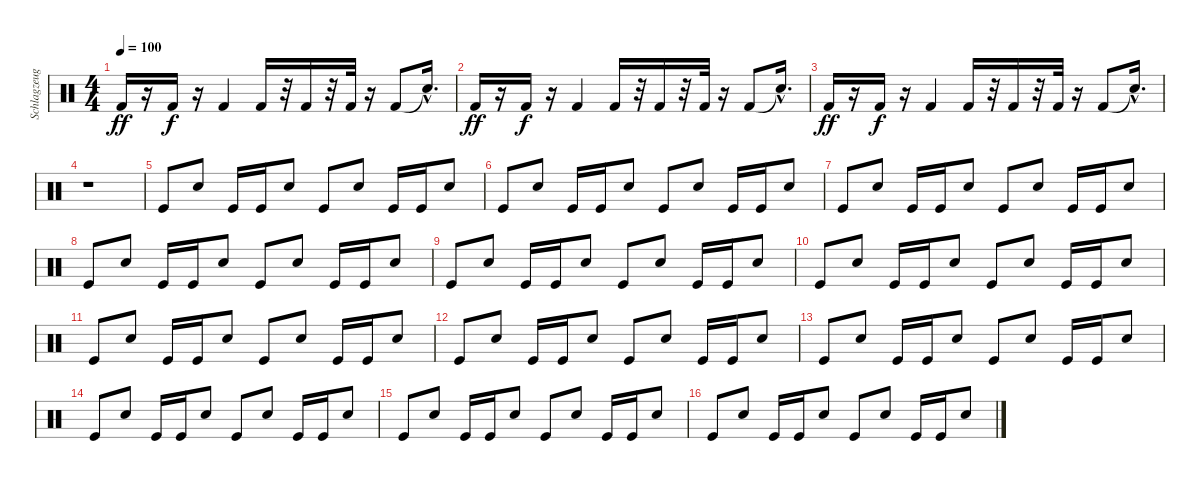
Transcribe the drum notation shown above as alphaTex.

\track ("Schlagzeug" "Schlagzeug") {instrument percussion}
\staff {score}
\articulation defaults
\ts (4 4)
\tempo 100
\clef neutral
\ks c "Kick (hit) 2".16{dy ff}
r.16 "Kick (hit) 2".16{dy f} r.16 "Kick (hit) 2".4 "Kick (hit) 2".16 r.32 "Kick (hit) 2".16 r.32 "Kick (hit) 2".32 r.16 "Kick (hit) 2".8 "Snare (hit)"{hac t}.16{d} |
"Kick (hit) 2".16{dy ff} r.16 "Kick (hit) 2".16{dy f} r.16 "Kick (hit) 2".4 "Kick (hit) 2".16 r.32 "Kick (hit) 2".16 r.32 "Kick (hit) 2".32 r.16 "Kick (hit) 2".8 "Snare (hit)"{hac t}.16{d} |
"Kick (hit) 2".16{dy ff} r.16 "Kick (hit) 2".16{dy f} r.16 "Kick (hit) 2".4 "Kick (hit) 2".16 r.32 "Kick (hit) 2".16 r.32 "Kick (hit) 2".32 r.16 "Kick (hit) 2".8 "Snare (hit)"{hac t}.16{d} |
r.1 |
"Kick (hit)".8 "Snare (hit) 2".8 "Kick (hit)".16 "Kick (hit)".16 "Snare (hit) 2".8 "Kick (hit)".8 "Snare (hit) 2".8 "Kick (hit)".16 "Kick (hit)".16 "Snare (hit) 2".8 |
"Kick (hit)".8 "Snare (hit) 2".8 "Kick (hit)".16 "Kick (hit)".16 "Snare (hit) 2".8 "Kick (hit)".8 "Snare (hit) 2".8 "Kick (hit)".16 "Kick (hit)".16 "Snare (hit) 2".8 |
"Kick (hit)".8 "Snare (hit) 2".8 "Kick (hit)".16 "Kick (hit)".16 "Snare (hit) 2".8 "Kick (hit)".8 "Snare (hit) 2".8 "Kick (hit)".16 "Kick (hit)".16 "Snare (hit) 2".8 |
"Kick (hit)".8 "Snare (hit) 2".8 "Kick (hit)".16 "Kick (hit)".16 "Snare (hit) 2".8 "Kick (hit)".8 "Snare (hit) 2".8 "Kick (hit)".16 "Kick (hit)".16 "Snare (hit) 2".8 |
"Kick (hit)".8 "Snare (hit) 2".8 "Kick (hit)".16 "Kick (hit)".16 "Snare (hit) 2".8 "Kick (hit)".8 "Snare (hit) 2".8 "Kick (hit)".16 "Kick (hit)".16 "Snare (hit) 2".8 |
"Kick (hit)".8 "Snare (hit) 2".8 "Kick (hit)".16 "Kick (hit)".16 "Snare (hit) 2".8 "Kick (hit)".8 "Snare (hit) 2".8 "Kick (hit)".16 "Kick (hit)".16 "Snare (hit) 2".8 |
"Kick (hit)".8 "Snare (hit) 2".8 "Kick (hit)".16 "Kick (hit)".16 "Snare (hit) 2".8 "Kick (hit)".8 "Snare (hit) 2".8 "Kick (hit)".16 "Kick (hit)".16 "Snare (hit) 2".8 |
"Kick (hit)".8 "Snare (hit) 2".8 "Kick (hit)".16 "Kick (hit)".16 "Snare (hit) 2".8 "Kick (hit)".8 "Snare (hit) 2".8 "Kick (hit)".16 "Kick (hit)".16 "Snare (hit) 2".8 |
"Kick (hit)".8 "Snare (hit) 2".8 "Kick (hit)".16 "Kick (hit)".16 "Snare (hit) 2".8 "Kick (hit)".8 "Snare (hit) 2".8 "Kick (hit)".16 "Kick (hit)".16 "Snare (hit) 2".8 |
"Kick (hit)".8 "Snare (hit) 2".8 "Kick (hit)".16 "Kick (hit)".16 "Snare (hit) 2".8 "Kick (hit)".8 "Snare (hit) 2".8 "Kick (hit)".16 "Kick (hit)".16 "Snare (hit) 2".8 |
"Kick (hit)".8 "Snare (hit) 2".8 "Kick (hit)".16 "Kick (hit)".16 "Snare (hit) 2".8 "Kick (hit)".8 "Snare (hit) 2".8 "Kick (hit)".16 "Kick (hit)".16 "Snare (hit) 2".8 |
"Kick (hit)".8 "Snare (hit) 2".8 "Kick (hit)".16 "Kick (hit)".16 "Snare (hit) 2".8 "Kick (hit)".8 "Snare (hit) 2".8 "Kick (hit)".16 "Kick (hit)".16 "Snare (hit) 2".8
